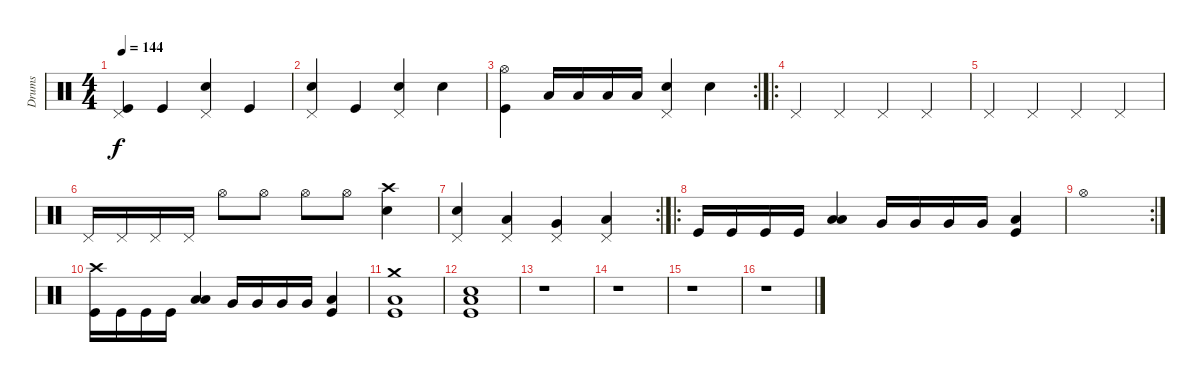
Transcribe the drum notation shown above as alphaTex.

\track ("Drums" "Drums") {instrument percussion}
\staff {score}
\articulation defaults
\ts (4 4)
\tempo 144
\clef neutral
\ks c
("Pedal Hi-Hat (hit)" "Kick (hit)").4{dy f} "Kick (hit)".4 ("Pedal Hi-Hat (hit)" "Snare (hit) 2").4 "Kick (hit)".4 |
("Pedal Hi-Hat (hit)" "Snare (hit) 2").4 "Kick (hit)".4 ("Pedal Hi-Hat (hit)" "Snare (hit) 2").4 "Snare (hit) 2".4 |
\rc 2
("Hi-Hat (open)" "Kick (hit)").4 "Low Tom (hit)".16 "Low Tom (hit)".16 "Low Tom (hit)".16 "Low Tom (hit)".16 ("Pedal Hi-Hat (hit)" "Snare (hit) 2").4 "Snare (hit) 2".4 |
\ro "Pedal Hi-Hat (hit)".4 "Pedal Hi-Hat (hit)".4 "Pedal Hi-Hat (hit)".4 "Pedal Hi-Hat (hit)".4
|
"Pedal Hi-Hat (hit)".4 "Pedal Hi-Hat (hit)".4 "Pedal Hi-Hat (hit)".4 "Pedal Hi-Hat (hit)".4 |
"Pedal Hi-Hat (hit)".16 "Pedal Hi-Hat (hit)".16 "Pedal Hi-Hat (hit)".16 "Pedal Hi-Hat (hit)".16 "Hi-Hat (open)".8 "Hi-Hat (open)".8 "Hi-Hat (open)".8 "Hi-Hat (open)".8 ("Crash high (hit)" "Snare (hit) 2").4 |
\rc 2
("Pedal Hi-Hat (hit)" "Snare (hit) 2").4 ("Pedal Hi-Hat (hit)" "Low Tom (hit)").4 ("Pedal Hi-Hat (hit)" "Very Low Tom (hit)").4 ("Pedal Hi-Hat (hit)" "Low Floor Tom (hit)").4 |
\ro "Kick (hit)".16 "Kick (hit)".16 "Kick (hit)".16 "Kick (hit)".16
("Low Floor Tom (hit)" "Low Tom (hit)").4 "Very Low Tom (hit)".16 "Very Low Tom (hit)".16 "Very Low Tom (hit)".16 "Very Low Tom (hit)".16 ("Low Tom (hit)" "Kick (hit)").4 |
\rc 2 "Hi-Hat (open)".1
|
("Crash high (hit)" "Kick (hit)").16 "Kick (hit)".16 "Kick (hit)".16 "Kick (hit)".16 ("Low Floor Tom (hit)" "Low Tom (hit)").4 "Very Low Tom (hit)".16 "Very Low Tom (hit)".16 "Very Low Tom (hit)".16 "Very Low Tom (hit)".16 ("Low Tom (hit)" "Kick (hit)").4 |
("Crash medium (hit)" "Low Tom (hit)" "Kick (hit)").1 |
("Snare (hit) 2" "Low Floor Tom (hit)" "Kick (hit)").1 |
r.1 |
r.1 |
r.1 |
r.1
